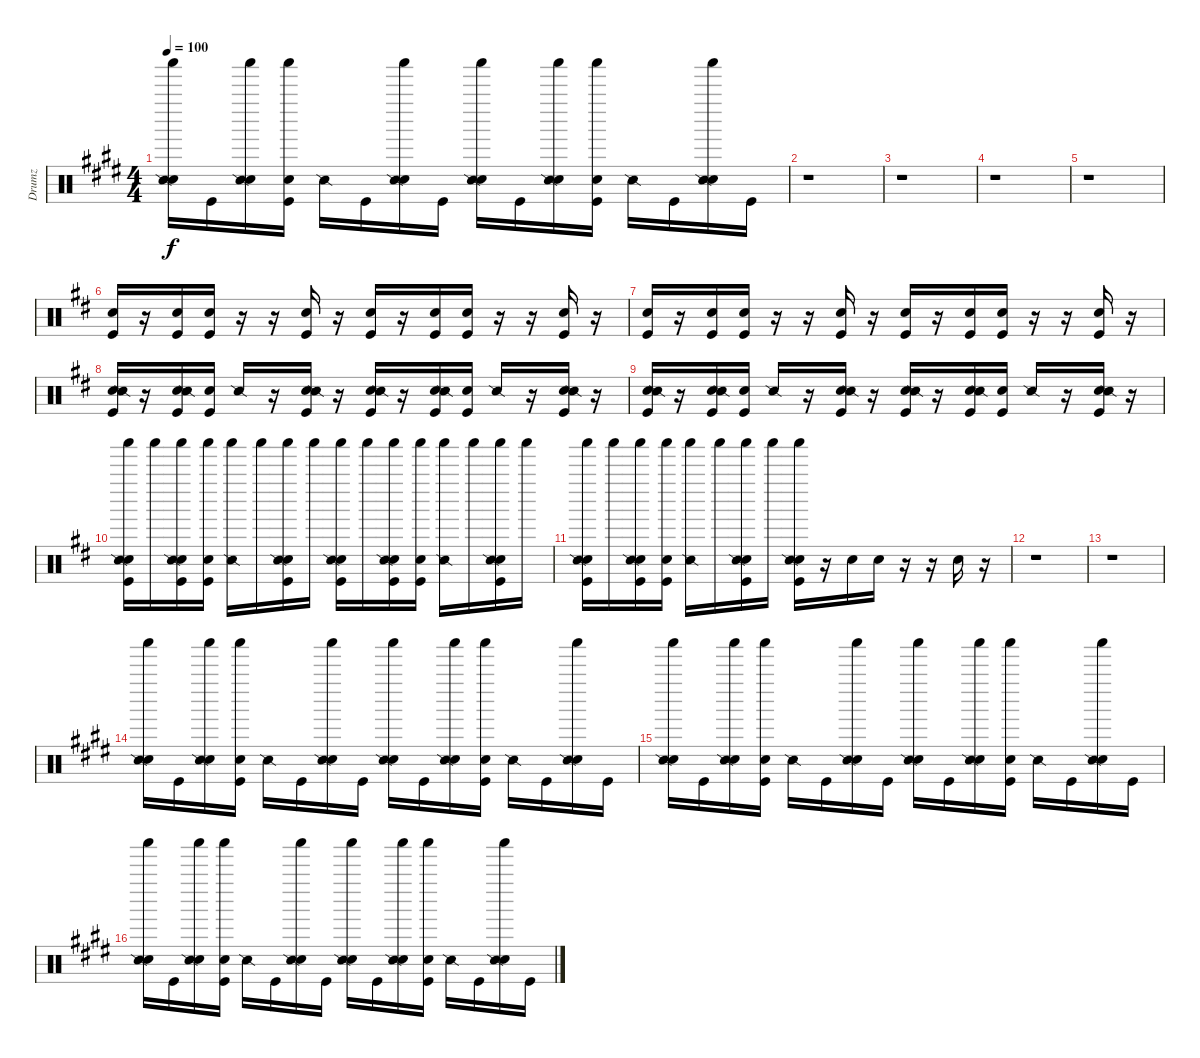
\track ("Drumz" "Drumz") {instrument percussion}
\staff {score}
\articulation defaults
\ts (4 4)
\tempo 100
\clef neutral
\ks c#minor
("Shaker (hit)" "Hand Clap (hit)" "Snare (side stick) 2").16{dy f} "Kick (hit)".16 ("Shaker (hit)" "Hand Clap (hit)" "Snare (side stick) 2").16 ("Shaker (hit)" "Hand Clap (hit)" "Kick (hit)").16 "Snare (side stick) 2".16 "Kick (hit)".16 ("Shaker (hit)" "Hand Clap (hit)" "Snare (side stick) 2").16 "Kick (hit)".16 ("Shaker (hit)" "Hand Clap (hit)" "Snare (side stick) 2").16 "Kick (hit)".16 ("Shaker (hit)" "Hand Clap (hit)" "Snare (side stick) 2").16 ("Shaker (hit)" "Hand Clap (hit)" "Kick (hit)").16 "Snare (side stick) 2".16 "Kick (hit)".16 ("Shaker (hit)" "Hand Clap (hit)" "Snare (side stick) 2").16 "Kick (hit)".16 |
r.1 |
r.1 |
r.1 |
r.1 |
\ks d
("Hand Clap (hit)" "Kick (hit)").16 r.16 ("Hand Clap (hit)" "Kick (hit)").16 ("Hand Clap (hit)" "Kick (hit)").16 r.16 r.16 ("Hand Clap (hit)" "Kick (hit)").16 r.16 ("Hand Clap (hit)" "Kick (hit)").16 r.16 ("Hand Clap (hit)" "Kick (hit)").16 ("Hand Clap (hit)" "Kick (hit)").16 r.16 r.16 ("Hand Clap (hit)" "Kick (hit)").16 r.16 |
("Hand Clap (hit)" "Kick (hit)").16 r.16 ("Hand Clap (hit)" "Kick (hit)").16 ("Hand Clap (hit)" "Kick (hit)").16 r.16 r.16 ("Hand Clap (hit)" "Kick (hit)").16 r.16 ("Hand Clap (hit)" "Kick (hit)").16 r.16 ("Hand Clap (hit)" "Kick (hit)").16 ("Hand Clap (hit)" "Kick (hit)").16 r.16 r.16 ("Hand Clap (hit)" "Kick (hit)").16 r.16 |
("Hand Clap (hit)" "Snare (side stick) 2" "Kick (hit)").16 r.16 ("Hand Clap (hit)" "Snare (side stick) 2" "Kick (hit)").16 ("Hand Clap (hit)" "Kick (hit)").16 "Snare (side stick) 2".16 r.16 ("Hand Clap (hit)" "Snare (side stick) 2" "Kick (hit)").16 r.16 ("Hand Clap (hit)" "Snare (side stick) 2" "Kick (hit)").16 r.16 ("Hand Clap (hit)" "Snare (side stick) 2" "Kick (hit)").16 ("Hand Clap (hit)" "Kick (hit)").16 "Snare (side stick) 2".16 r.16 ("Hand Clap (hit)" "Snare (side stick) 2" "Kick (hit)").16 r.16 |
("Hand Clap (hit)" "Snare (side stick) 2" "Kick (hit)").16 r.16 ("Hand Clap (hit)" "Snare (side stick) 2" "Kick (hit)").16 ("Hand Clap (hit)" "Kick (hit)").16 "Snare (side stick) 2".16 r.16 ("Hand Clap (hit)" "Snare (side stick) 2" "Kick (hit)").16 r.16 ("Hand Clap (hit)" "Snare (side stick) 2" "Kick (hit)").16 r.16 ("Hand Clap (hit)" "Snare (side stick) 2" "Kick (hit)").16 ("Hand Clap (hit)" "Kick (hit)").16 "Snare (side stick) 2".16 r.16 ("Hand Clap (hit)" "Snare (side stick) 2" "Kick (hit)").16 r.16 |
("Shaker (hit)" "Hand Clap (hit)" "Snare (side stick) 2" "Kick (hit)").16 "Shaker (hit)".16 ("Shaker (hit)" "Hand Clap (hit)" "Snare (side stick) 2" "Kick (hit)").16 ("Shaker (hit)" "Hand Clap (hit)" "Kick (hit)").16 ("Shaker (hit)" "Snare (side stick) 2").16 "Shaker (hit)".16 ("Shaker (hit)" "Hand Clap (hit)" "Snare (side stick) 2" "Kick (hit)").16 "Shaker (hit)".16 ("Shaker (hit)" "Hand Clap (hit)" "Snare (side stick) 2" "Kick (hit)").16 "Shaker (hit)".16 ("Shaker (hit)" "Hand Clap (hit)" "Snare (side stick) 2" "Kick (hit)").16 ("Shaker (hit)" "Hand Clap (hit)" "Kick (hit)").16 ("Shaker (hit)" "Snare (side stick) 2").16 "Shaker (hit)".16 ("Shaker (hit)" "Hand Clap (hit)" "Snare (side stick) 2" "Kick (hit)").16 "Shaker (hit)".16 |
("Shaker (hit)" "Hand Clap (hit)" "Snare (side stick) 2" "Kick (hit)").16 "Shaker (hit)".16 ("Shaker (hit)" "Hand Clap (hit)" "Snare (side stick) 2" "Kick (hit)").16 ("Shaker (hit)" "Hand Clap (hit)" "Kick (hit)").16 ("Shaker (hit)" "Snare (side stick) 2").16 "Shaker (hit)".16 ("Shaker (hit)" "Hand Clap (hit)" "Snare (side stick) 2" "Kick (hit)").16 "Shaker (hit)".16 ("Shaker (hit)" "Hand Clap (hit)" "Snare (side stick) 2" "Kick (hit)").16 r.16 "Hand Clap (hit)".16 "Hand Clap (hit)".16 r.16 r.16 "Hand Clap (hit)".16 r.16 |
r.1 |
r.1 |
\ks c#minor
("Shaker (hit)" "Hand Clap (hit)" "Snare (side stick) 2").16 "Kick (hit)".16 ("Shaker (hit)" "Hand Clap (hit)" "Snare (side stick) 2").16 ("Shaker (hit)" "Hand Clap (hit)" "Kick (hit)").16 "Snare (side stick) 2".16 "Kick (hit)".16 ("Shaker (hit)" "Hand Clap (hit)" "Snare (side stick) 2").16 "Kick (hit)".16 ("Shaker (hit)" "Hand Clap (hit)" "Snare (side stick) 2").16 "Kick (hit)".16 ("Shaker (hit)" "Hand Clap (hit)" "Snare (side stick) 2").16 ("Shaker (hit)" "Hand Clap (hit)" "Kick (hit)").16 "Snare (side stick) 2".16 "Kick (hit)".16 ("Shaker (hit)" "Hand Clap (hit)" "Snare (side stick) 2").16 "Kick (hit)".16 |
("Shaker (hit)" "Hand Clap (hit)" "Snare (side stick) 2").16 "Kick (hit)".16 ("Shaker (hit)" "Hand Clap (hit)" "Snare (side stick) 2").16 ("Shaker (hit)" "Hand Clap (hit)" "Kick (hit)").16 "Snare (side stick) 2".16 "Kick (hit)".16 ("Shaker (hit)" "Hand Clap (hit)" "Snare (side stick) 2").16 "Kick (hit)".16 ("Shaker (hit)" "Hand Clap (hit)" "Snare (side stick) 2").16 "Kick (hit)".16 ("Shaker (hit)" "Hand Clap (hit)" "Snare (side stick) 2").16 ("Shaker (hit)" "Hand Clap (hit)" "Kick (hit)").16 "Snare (side stick) 2".16 "Kick (hit)".16 ("Shaker (hit)" "Hand Clap (hit)" "Snare (side stick) 2").16 "Kick (hit)".16 |
("Shaker (hit)" "Hand Clap (hit)" "Snare (side stick) 2").16 "Kick (hit)".16 ("Shaker (hit)" "Hand Clap (hit)" "Snare (side stick) 2").16 ("Shaker (hit)" "Hand Clap (hit)" "Kick (hit)").16 "Snare (side stick) 2".16 "Kick (hit)".16 ("Shaker (hit)" "Hand Clap (hit)" "Snare (side stick) 2").16 "Kick (hit)".16 ("Shaker (hit)" "Hand Clap (hit)" "Snare (side stick) 2").16 "Kick (hit)".16 ("Shaker (hit)" "Hand Clap (hit)" "Snare (side stick) 2").16 ("Shaker (hit)" "Hand Clap (hit)" "Kick (hit)").16 "Snare (side stick) 2".16 "Kick (hit)".16 ("Shaker (hit)" "Hand Clap (hit)" "Snare (side stick) 2").16 "Kick (hit)".16
